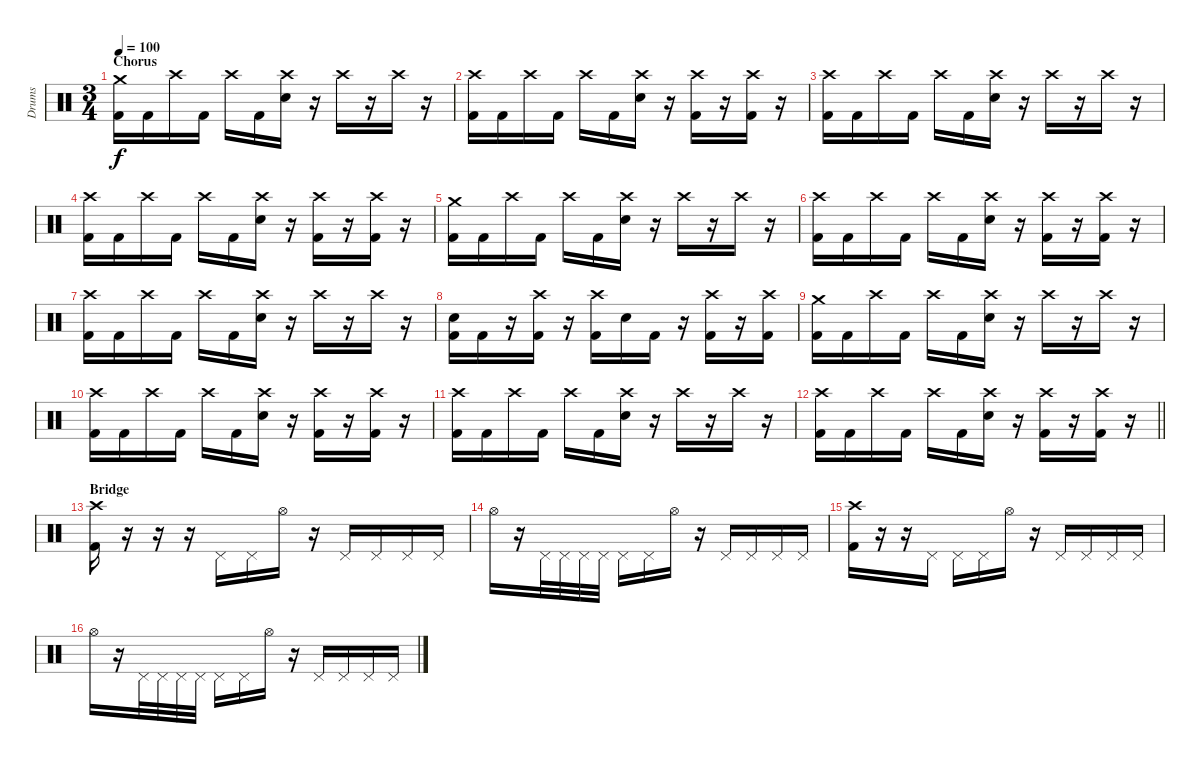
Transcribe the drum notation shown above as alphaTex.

\track ("Drums" "Drums") {instrument percussion}
\staff {score}
\articulation defaults
\ts (3 4)
\section ("" "Chorus")
\tempo 100
\clef neutral
\ks c
("Crash medium (hit)" "Kick (hit) 2").16{dy f} "Kick (hit) 2".16 "Crash high (hit)".16 "Kick (hit) 2".16 "Crash high (hit)".16 "Kick (hit) 2".16 ("Crash high (hit)" "Electric Snare (hit)").16 r.16 "Crash high (hit)".16 r.16 "Crash high (hit)".16 r.16 |
("Crash high (hit)" "Kick (hit) 2").16 "Kick (hit) 2".16 "Crash high (hit)".16 "Kick (hit) 2".16 "Crash high (hit)".16 "Kick (hit) 2".16 ("Crash high (hit)" "Electric Snare (hit)").16 r.16 ("Crash high (hit)" "Kick (hit) 2").16 r.16 ("Crash high (hit)" "Kick (hit) 2").16 r.16 |
("Crash high (hit)" "Kick (hit) 2").16 "Kick (hit) 2".16 "Crash high (hit)".16 "Kick (hit) 2".16 "Crash high (hit)".16 "Kick (hit) 2".16 ("Crash high (hit)" "Electric Snare (hit)").16 r.16 "Crash high (hit)".16 r.16 "Crash high (hit)".16 r.16 |
("Crash high (hit)" "Kick (hit) 2").16 "Kick (hit) 2".16 "Crash high (hit)".16 "Kick (hit) 2".16 "Crash high (hit)".16 "Kick (hit) 2".16 ("Crash high (hit)" "Electric Snare (hit)").16 r.16 ("Crash high (hit)" "Kick (hit) 2").16 r.16 ("Crash high (hit)" "Kick (hit) 2").16 r.16 |
("Crash medium (hit)" "Kick (hit) 2").16 "Kick (hit) 2".16 "Crash high (hit)".16 "Kick (hit) 2".16 "Crash high (hit)".16 "Kick (hit) 2".16 ("Crash high (hit)" "Electric Snare (hit)").16 r.16 "Crash high (hit)".16 r.16 "Crash high (hit)".16 r.16 |
("Crash high (hit)" "Kick (hit) 2").16 "Kick (hit) 2".16 "Crash high (hit)".16 "Kick (hit) 2".16 "Crash high (hit)".16 "Kick (hit) 2".16 ("Crash high (hit)" "Electric Snare (hit)").16 r.16 ("Crash high (hit)" "Kick (hit) 2").16 r.16 ("Crash high (hit)" "Kick (hit) 2").16 r.16 |
("Crash high (hit)" "Kick (hit) 2").16 "Kick (hit) 2".16 "Crash high (hit)".16 "Kick (hit) 2".16 "Crash high (hit)".16 "Kick (hit) 2".16 ("Crash high (hit)" "Electric Snare (hit)").16 r.16 "Crash high (hit)".16 r.16 "Crash high (hit)".16 r.16 |
("Electric Snare (hit)" "Kick (hit) 2").16 "Kick (hit) 2".16 r.16 ("Crash high (hit)" "Kick (hit) 2").16 r.16 ("Crash high (hit)" "Kick (hit) 2").16 "Electric Snare (hit)".16 "Kick (hit) 2".16 r.16 ("Crash high (hit)" "Kick (hit) 2").16 r.16 ("Crash high (hit)" "Kick (hit) 2").16 |
("Crash medium (hit)" "Kick (hit) 2").16 "Kick (hit) 2".16 "Crash high (hit)".16 "Kick (hit) 2".16 "Crash high (hit)".16 "Kick (hit) 2".16 ("Crash high (hit)" "Electric Snare (hit)").16 r.16 "Crash high (hit)".16 r.16 "Crash high (hit)".16 r.16 |
("Crash high (hit)" "Kick (hit) 2").16 "Kick (hit) 2".16 "Crash high (hit)".16 "Kick (hit) 2".16 "Crash high (hit)".16 "Kick (hit) 2".16 ("Crash high (hit)" "Electric Snare (hit)").16 r.16 ("Crash high (hit)" "Kick (hit) 2").16 r.16 ("Crash high (hit)" "Kick (hit) 2").16 r.16 |
("Crash high (hit)" "Kick (hit) 2").16 "Kick (hit) 2".16 "Crash high (hit)".16 "Kick (hit) 2".16 "Crash high (hit)".16 "Kick (hit) 2".16 ("Crash high (hit)" "Electric Snare (hit)").16 r.16 "Crash high (hit)".16 r.16 "Crash high (hit)".16 r.16 |
\barLineRight lightlight
("Crash high (hit)" "Kick (hit) 2").16 "Kick (hit) 2".16 "Crash high (hit)".16 "Kick (hit) 2".16 "Crash high (hit)".16 "Kick (hit) 2".16 ("Crash high (hit)" "Electric Snare (hit)").16 r.16 ("Crash high (hit)" "Kick (hit) 2").16 r.16 ("Crash high (hit)" "Kick (hit) 2").16 r.16 |
\section ("" "Bridge")
("Crash high (hit)" "Kick (hit) 2").16 r.16 r.16 r.16 "Pedal Hi-Hat (hit)".16 "Pedal Hi-Hat (hit)".16 "Hi-Hat (open)".16 r.16 "Pedal Hi-Hat (hit)".16 "Pedal Hi-Hat (hit)".16 "Pedal Hi-Hat (hit)".16 "Pedal Hi-Hat (hit)".16 |
"Hi-Hat (open)".16 r.16 "Pedal Hi-Hat (hit)".32 "Pedal Hi-Hat (hit)".32 "Pedal Hi-Hat (hit)".32 "Pedal Hi-Hat (hit)".32 "Pedal Hi-Hat (hit)".16 "Pedal Hi-Hat (hit)".16 "Hi-Hat (open)".16 r.16 "Pedal Hi-Hat (hit)".16 "Pedal Hi-Hat (hit)".16 "Pedal Hi-Hat (hit)".16 "Pedal Hi-Hat (hit)".16 |
("Crash high (hit)" "Kick (hit) 2").16 r.16 r.16 "Pedal Hi-Hat (hit)".16 "Pedal Hi-Hat (hit)".16 "Pedal Hi-Hat (hit)".16 "Hi-Hat (open)".16 r.16 "Pedal Hi-Hat (hit)".16 "Pedal Hi-Hat (hit)".16 "Pedal Hi-Hat (hit)".16 "Pedal Hi-Hat (hit)".16 |
"Hi-Hat (open)".16 r.16 "Pedal Hi-Hat (hit)".32 "Pedal Hi-Hat (hit)".32 "Pedal Hi-Hat (hit)".32 "Pedal Hi-Hat (hit)".32 "Pedal Hi-Hat (hit)".16 "Pedal Hi-Hat (hit)".16 "Hi-Hat (open)".16 r.16 "Pedal Hi-Hat (hit)".16 "Pedal Hi-Hat (hit)".16 "Pedal Hi-Hat (hit)".16 "Pedal Hi-Hat (hit)".16
